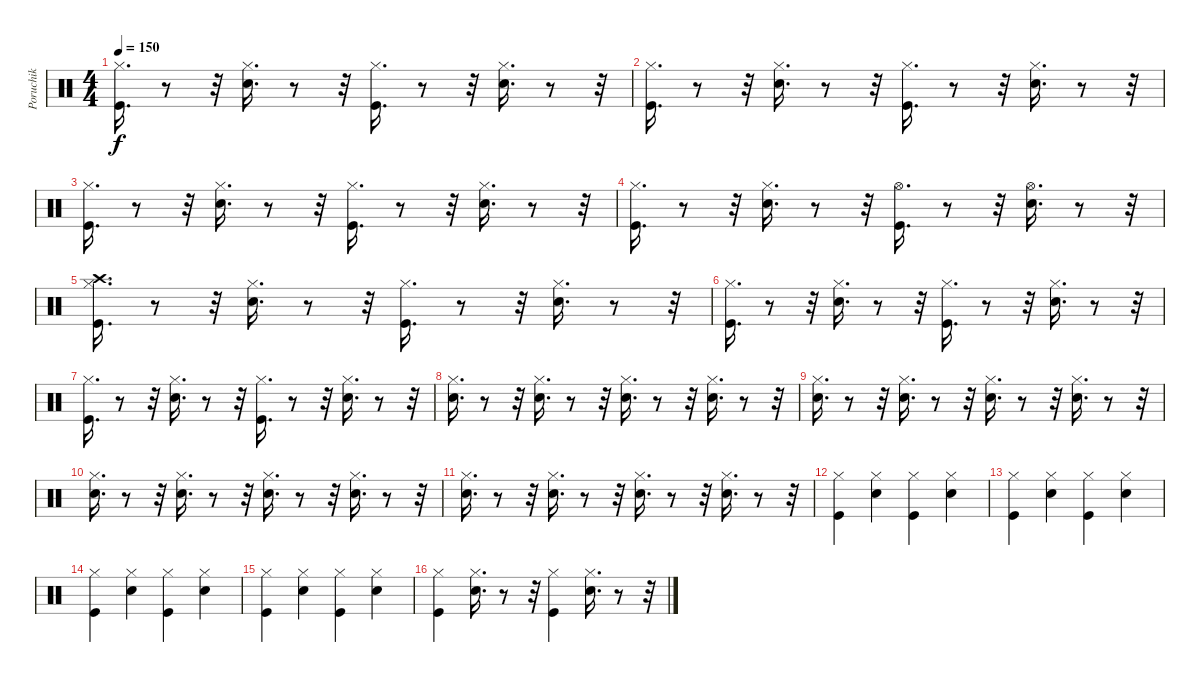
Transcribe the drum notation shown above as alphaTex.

\track ("Poruchik" "Poruchik") {instrument percussion}
\staff {score}
\articulation defaults
\ts (4 4)
\tempo 150
\clef neutral
\ks c
("Kick (hit)" "Hi-Hat (closed)").16{d dy f} r.8 r.32 ("Hi-Hat (closed)" "Electric Snare (hit)").16{d} r.8 r.32 ("Kick (hit)" "Hi-Hat (closed)").16{d} r.8 r.32 ("Electric Snare (hit)" "Hi-Hat (closed)").16{d} r.8 r.32 |
("Kick (hit)" "Hi-Hat (closed)").16{d} r.8 r.32 ("Hi-Hat (closed)" "Electric Snare (hit)").16{d} r.8 r.32 ("Kick (hit)" "Hi-Hat (closed)").16{d} r.8 r.32 ("Hi-Hat (closed)" "Electric Snare (hit)").16{d} r.8 r.32 |
("Kick (hit)" "Hi-Hat (closed)").16{d} r.8 r.32 ("Hi-Hat (closed)" "Electric Snare (hit)").16{d} r.8 r.32 ("Kick (hit)" "Hi-Hat (closed)").16{d} r.8 r.32 ("Electric Snare (hit)" "Hi-Hat (closed)").16{d} r.8 r.32 |
("Hi-Hat (closed)" "Kick (hit)").16{d} r.8 r.32 ("Electric Snare (hit)" "Hi-Hat (closed)").16{d} r.8 r.32 ("Hi-Hat (open)" "Kick (hit)").16{d} r.8 r.32 ("Hi-Hat (open)" "Electric Snare (hit)").16{d} r.8 r.32 |
("Kick (hit)" "Crash high (hit)" "Hi-Hat (closed)").16{d} r.8 r.32 ("Hi-Hat (closed)" "Electric Snare (hit)").16{d} r.8 r.32 ("Hi-Hat (closed)" "Kick (hit)").16{d} r.8 r.32 ("Hi-Hat (closed)" "Electric Snare (hit)").16{d} r.8 r.32 |
("Hi-Hat (closed)" "Kick (hit)").16{d} r.8 r.32 ("Hi-Hat (closed)" "Electric Snare (hit)").16{d} r.8 r.32 ("Kick (hit)" "Hi-Hat (closed)").16{d} r.8 r.32 ("Electric Snare (hit)" "Hi-Hat (closed)").16{d} r.8 r.32 |
("Hi-Hat (closed)" "Kick (hit)").16{d} r.8 r.32 ("Electric Snare (hit)" "Hi-Hat (closed)").16{d} r.8 r.32 ("Kick (hit)" "Hi-Hat (closed)").16{d} r.8 r.32 ("Hi-Hat (closed)" "Electric Snare (hit)").16{d} r.8 r.32 |
("Electric Snare (hit)" "Hi-Hat (closed)").16{d} r.8 r.32 ("Hi-Hat (closed)" "Electric Snare (hit)").16{d} r.8 r.32 ("Electric Snare (hit)" "Hi-Hat (closed)").16{d} r.8 r.32 ("Electric Snare (hit)" "Hi-Hat (closed)").16{d} r.8 r.32 |
("Hi-Hat (closed)" "Electric Snare (hit)").16{d} r.8 r.32 ("Electric Snare (hit)" "Hi-Hat (closed)").16{d} r.8 r.32 ("Hi-Hat (closed)" "Electric Snare (hit)").16{d} r.8 r.32 ("Hi-Hat (closed)" "Electric Snare (hit)").16{d} r.8 r.32 |
("Hi-Hat (closed)" "Electric Snare (hit)").16{d} r.8 r.32 ("Hi-Hat (closed)" "Electric Snare (hit)").16{d} r.8 r.32 ("Electric Snare (hit)" "Hi-Hat (closed)").16{d} r.8 r.32 ("Electric Snare (hit)" "Hi-Hat (closed)").16{d} r.8 r.32 |
("Hi-Hat (closed)" "Electric Snare (hit)").16{d} r.8 r.32 ("Electric Snare (hit)" "Hi-Hat (closed)").16{d} r.8 r.32 ("Electric Snare (hit)" "Hi-Hat (closed)").16{d} r.8 r.32 ("Electric Snare (hit)" "Hi-Hat (closed)").16{d} r.8 r.32 |
("Hi-Hat (closed)" "Kick (hit)").4 ("Electric Snare (hit)" "Hi-Hat (closed)").4 ("Hi-Hat (closed)" "Kick (hit)").4 ("Hi-Hat (closed)" "Electric Snare (hit)").4 |
("Hi-Hat (closed)" "Kick (hit)").4 ("Hi-Hat (closed)" "Electric Snare (hit)").4 ("Hi-Hat (closed)" "Kick (hit)").4 ("Electric Snare (hit)" "Hi-Hat (closed)").4 |
("Hi-Hat (closed)" "Kick (hit)").4 ("Hi-Hat (closed)" "Electric Snare (hit)").4 ("Kick (hit)" "Hi-Hat (closed)").4 ("Electric Snare (hit)" "Hi-Hat (closed)").4 |
("Kick (hit)" "Hi-Hat (closed)").4 ("Electric Snare (hit)" "Hi-Hat (closed)").4 ("Hi-Hat (closed)" "Kick (hit)").4 ("Hi-Hat (closed)" "Electric Snare (hit)").4 |
("Kick (hit)" "Hi-Hat (closed)").4 ("Electric Snare (hit)" "Hi-Hat (closed)").16{d} r.8 r.32 ("Kick (hit)" "Hi-Hat (closed)").4 ("Hi-Hat (closed)" "Electric Snare (hit)").16{d} r.8 r.32
